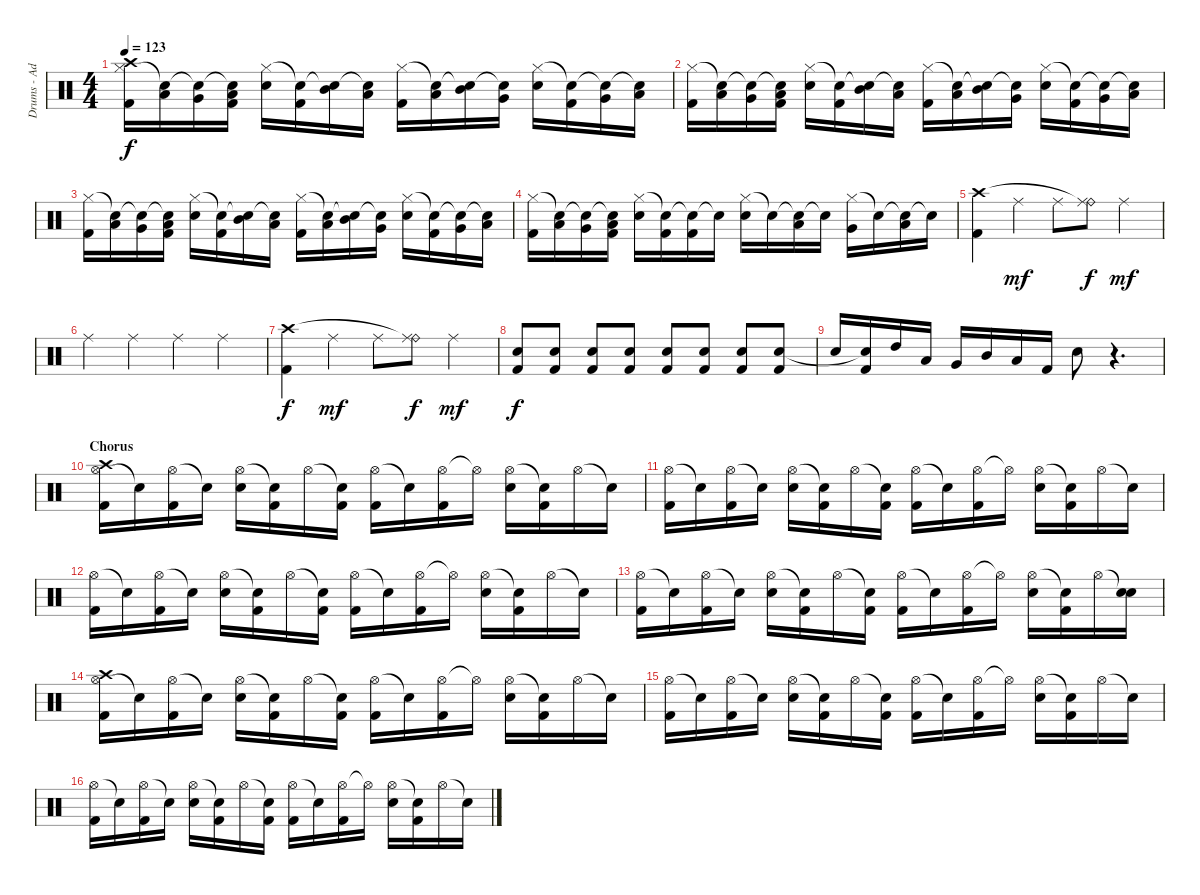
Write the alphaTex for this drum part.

\track ("Drums - Adam" "Drums - Ad") {instrument percussion}
\staff {score}
\articulation defaults
\ts (4 4)
\tempo 123
\clef neutral
\ks c
("Hi-Hat (closed)" "Kick (hit) 2" "Crash high (hit)").16{dy f} ("Snare (hit)"{t} "Low Tom (hit)").16 ("Snare (hit)"{t} "Very Low Tom (hit)").16 ("Snare (hit)"{t} "Kick (hit) 2" "Low Floor Tom (hit)").16 ("Hi-Hat (closed)" "Electric Snare (hit)").16 ("Snare (hit)"{t} "Kick (hit) 2").16 ("Snare (hit)"{t} "Mid Tom (hit)").16 ("Snare (hit)"{t} "Low Tom (hit)").16 ("Hi-Hat (closed)" "Kick (hit) 2").16 ("Snare (hit)"{t} "Low Tom (hit)").16 ("Snare (hit)"{t} "Mid Tom (hit)").16 ("Snare (hit)"{t} "Very Low Tom (hit)").16 ("Hi-Hat (closed)" "Electric Snare (hit)").16 ("Snare (hit)"{t} "Kick (hit) 2").16 ("Snare (hit)"{t} "Very Low Tom (hit)").16 ("Snare (hit)"{t} "Low Floor Tom (hit)").16 |
("Hi-Hat (closed)" "Kick (hit) 2").16 ("Snare (hit)"{t} "Low Tom (hit)").16 ("Snare (hit)"{t} "Very Low Tom (hit)").16 ("Snare (hit)"{t} "Kick (hit) 2" "Low Floor Tom (hit)").16 ("Hi-Hat (closed)" "Electric Snare (hit)").16 ("Snare (hit)"{t} "Kick (hit) 2").16 ("Snare (hit)"{t} "Mid Tom (hit)").16 ("Snare (hit)"{t} "Low Tom (hit)").16 ("Hi-Hat (closed)" "Kick (hit) 2").16 ("Snare (hit)"{t} "Low Tom (hit)").16 ("Snare (hit)"{t} "Mid Tom (hit)").16 ("Snare (hit)"{t} "Very Low Tom (hit)").16 ("Hi-Hat (closed)" "Electric Snare (hit)").16 ("Snare (hit)"{t} "Kick (hit) 2").16 ("Snare (hit)"{t} "Very Low Tom (hit)").16 ("Snare (hit)"{t} "Low Floor Tom (hit)").16 |
("Hi-Hat (closed)" "Kick (hit) 2").16 ("Snare (hit)"{t} "Low Tom (hit)").16 ("Snare (hit)"{t} "Very Low Tom (hit)").16 ("Snare (hit)"{t} "Kick (hit) 2" "Low Floor Tom (hit)").16 ("Hi-Hat (closed)" "Electric Snare (hit)").16 ("Snare (hit)"{t} "Kick (hit) 2").16 ("Snare (hit)"{t} "Mid Tom (hit)").16 ("Snare (hit)"{t} "Low Tom (hit)").16 ("Hi-Hat (closed)" "Kick (hit) 2").16 ("Snare (hit)"{t} "Low Tom (hit)").16 ("Snare (hit)"{t} "Mid Tom (hit)").16 ("Snare (hit)"{t} "Very Low Tom (hit)").16 ("Hi-Hat (closed)" "Electric Snare (hit)").16 ("Snare (hit)"{t} "Kick (hit) 2").16 ("Snare (hit)"{t} "Very Low Tom (hit)").16 ("Snare (hit)"{t} "Low Floor Tom (hit)").16 |
("Hi-Hat (closed)" "Kick (hit) 2").16 ("Snare (hit)"{t} "Low Tom (hit)").16 ("Snare (hit)"{t} "Very Low Tom (hit)").16 ("Snare (hit)"{t} "Kick (hit) 2" "Low Floor Tom (hit)").16 ("Hi-Hat (closed)" "Electric Snare (hit)").16 ("Snare (hit)"{t} "Kick (hit) 2").16 ("Snare (hit)"{t} "Kick (hit) 2").16 "Snare (hit)"{t}.16 ("Hi-Hat (closed)" "Electric Snare (hit)").16 "Snare (hit)"{t}.16 ("Snare (hit)"{t} "Low Tom (hit)").16 "Snare (hit)"{t}.16 ("Hi-Hat (closed)" "Very Low Tom (hit)").16 "Snare (hit)"{t}.16 ("Snare (hit)"{t} "Low Floor Tom (hit)").16 "Snare (hit)"{t}.16 |
("Kick (hit) 2" "Crash high (hit)").4 "Ride (middle)".4{dy mf} "Ride (middle)".8 ("Ride (bell)" "Ride (middle)"{t}).8{dy f} "Ride (middle)".4{dy mf} |
"Ride (middle)".4 "Ride (middle)".4 "Ride (middle)".4 "Ride (middle)".4 |
("Kick (hit) 2" "Crash high (hit)").4{dy f} "Ride (middle)".4{dy mf} "Ride (middle)".8 ("Ride (bell)" "Ride (middle)"{t}).8{dy f} "Ride (middle)".4{dy mf} |
("Kick (hit) 2" "Electric Snare (hit)").8{dy f} ("Kick (hit) 2" "Electric Snare (hit)").8 ("Kick (hit) 2" "Electric Snare (hit)").8 ("Kick (hit) 2" "Electric Snare (hit)").8 ("Kick (hit) 2" "Electric Snare (hit)").8 ("Kick (hit) 2" "Electric Snare (hit)").8 ("Kick (hit) 2" "Electric Snare (hit)").8 ("Kick (hit) 2" "Electric Snare (hit)").8 |
"Electric Snare (hit)".16 ("Kick (hit) 2" "Snare (hit)"{t}).16 "High Tom (hit)".16 "Low Tom (hit)".16 "Very Low Tom (hit)".16 "Mid Tom (hit)".16 "Low Floor Tom (hit)".16 "Kick (hit) 2".16 "Electric Snare (hit)".8 r.4{d} |
\section ("" "Chorus")
("Hi-Hat (open)" "Kick (hit) 2" "Crash high (hit)").16 "Snare (hit)"{t}.16 ("Hi-Hat (open)" "Kick (hit) 2").16 "Snare (hit)"{t}.16 ("Hi-Hat (open)" "Electric Snare (hit)").16 ("Snare (hit)"{t} "Kick (hit) 2").16 "Hi-Hat (open)".16 ("Snare (hit)"{t} "Kick (hit) 2").16 ("Hi-Hat (open)" "Kick (hit) 2").16 "Snare (hit)"{t}.16 ("Hi-Hat (open)" "Kick (hit) 2").16 "Hi-Hat (open)"{t}.16 ("Hi-Hat (open)" "Electric Snare (hit)").16 ("Snare (hit)"{t} "Kick (hit) 2").16 "Hi-Hat (open)".16 "Snare (hit)"{t}.16 |
("Hi-Hat (open)" "Kick (hit) 2").16 "Snare (hit)"{t}.16 ("Hi-Hat (open)" "Kick (hit) 2").16 "Snare (hit)"{t}.16 ("Hi-Hat (open)" "Electric Snare (hit)").16 ("Snare (hit)"{t} "Kick (hit) 2").16 "Hi-Hat (open)".16 ("Snare (hit)"{t} "Kick (hit) 2").16 ("Hi-Hat (open)" "Kick (hit) 2").16 "Snare (hit)"{t}.16 ("Hi-Hat (open)" "Kick (hit) 2").16 "Hi-Hat (open)"{t}.16 ("Hi-Hat (open)" "Electric Snare (hit)").16 ("Snare (hit)"{t} "Kick (hit) 2").16 "Hi-Hat (open)".16 "Snare (hit)"{t}.16 |
("Hi-Hat (open)" "Kick (hit) 2").16 "Snare (hit)"{t}.16 ("Hi-Hat (open)" "Kick (hit) 2").16 "Snare (hit)"{t}.16 ("Hi-Hat (open)" "Electric Snare (hit)").16 ("Snare (hit)"{t} "Kick (hit) 2").16 "Hi-Hat (open)".16 ("Snare (hit)"{t} "Kick (hit) 2").16 ("Hi-Hat (open)" "Kick (hit) 2").16 "Snare (hit)"{t}.16 ("Hi-Hat (open)" "Kick (hit) 2").16 "Hi-Hat (open)"{t}.16 ("Hi-Hat (open)" "Electric Snare (hit)").16 ("Snare (hit)"{t} "Kick (hit) 2").16 "Hi-Hat (open)".16 "Snare (hit)"{t}.16 |
("Hi-Hat (open)" "Kick (hit) 2").16 "Snare (hit)"{t}.16 ("Hi-Hat (open)" "Kick (hit) 2").16 "Snare (hit)"{t}.16 ("Hi-Hat (open)" "Electric Snare (hit)").16 ("Snare (hit)"{t} "Kick (hit) 2").16 "Hi-Hat (open)".16 ("Snare (hit)"{t} "Kick (hit) 2").16 ("Hi-Hat (open)" "Kick (hit) 2").16 "Snare (hit)"{t}.16 ("Hi-Hat (open)" "Kick (hit) 2").16 "Hi-Hat (open)"{t}.16 ("Hi-Hat (open)" "Electric Snare (hit)").16 ("Snare (hit)"{t} "Kick (hit) 2").16 "Hi-Hat (open)".16 ("Snare (hit)"{t} "Electric Snare (hit)").16 |
("Hi-Hat (open)" "Kick (hit) 2" "Crash high (hit)").16 "Snare (hit)"{t}.16 ("Hi-Hat (open)" "Kick (hit) 2").16 "Snare (hit)"{t}.16 ("Hi-Hat (open)" "Electric Snare (hit)").16 ("Snare (hit)"{t} "Kick (hit) 2").16 "Hi-Hat (open)".16 ("Snare (hit)"{t} "Kick (hit) 2").16 ("Hi-Hat (open)" "Kick (hit) 2").16 "Snare (hit)"{t}.16 ("Hi-Hat (open)" "Kick (hit) 2").16 "Hi-Hat (open)"{t}.16 ("Hi-Hat (open)" "Electric Snare (hit)").16 ("Snare (hit)"{t} "Kick (hit) 2").16 "Hi-Hat (open)".16 "Snare (hit)"{t}.16 |
("Hi-Hat (open)" "Kick (hit) 2").16 "Snare (hit)"{t}.16 ("Hi-Hat (open)" "Kick (hit) 2").16 "Snare (hit)"{t}.16 ("Hi-Hat (open)" "Electric Snare (hit)").16 ("Snare (hit)"{t} "Kick (hit) 2").16 "Hi-Hat (open)".16 ("Snare (hit)"{t} "Kick (hit) 2").16 ("Hi-Hat (open)" "Kick (hit) 2").16 "Snare (hit)"{t}.16 ("Hi-Hat (open)" "Kick (hit) 2").16 "Hi-Hat (open)"{t}.16 ("Hi-Hat (open)" "Electric Snare (hit)").16 ("Snare (hit)"{t} "Kick (hit) 2").16 "Hi-Hat (open)".16 "Snare (hit)"{t}.16 |
("Hi-Hat (open)" "Kick (hit) 2").16 "Snare (hit)"{t}.16 ("Hi-Hat (open)" "Kick (hit) 2").16 "Snare (hit)"{t}.16 ("Hi-Hat (open)" "Electric Snare (hit)").16 ("Snare (hit)"{t} "Kick (hit) 2").16 "Hi-Hat (open)".16 ("Snare (hit)"{t} "Kick (hit) 2").16 ("Hi-Hat (open)" "Kick (hit) 2").16 "Snare (hit)"{t}.16 ("Hi-Hat (open)" "Kick (hit) 2").16 "Hi-Hat (open)"{t}.16 ("Hi-Hat (open)" "Electric Snare (hit)").16 ("Snare (hit)"{t} "Kick (hit) 2").16 "Hi-Hat (open)".16 "Snare (hit)"{t}.16
